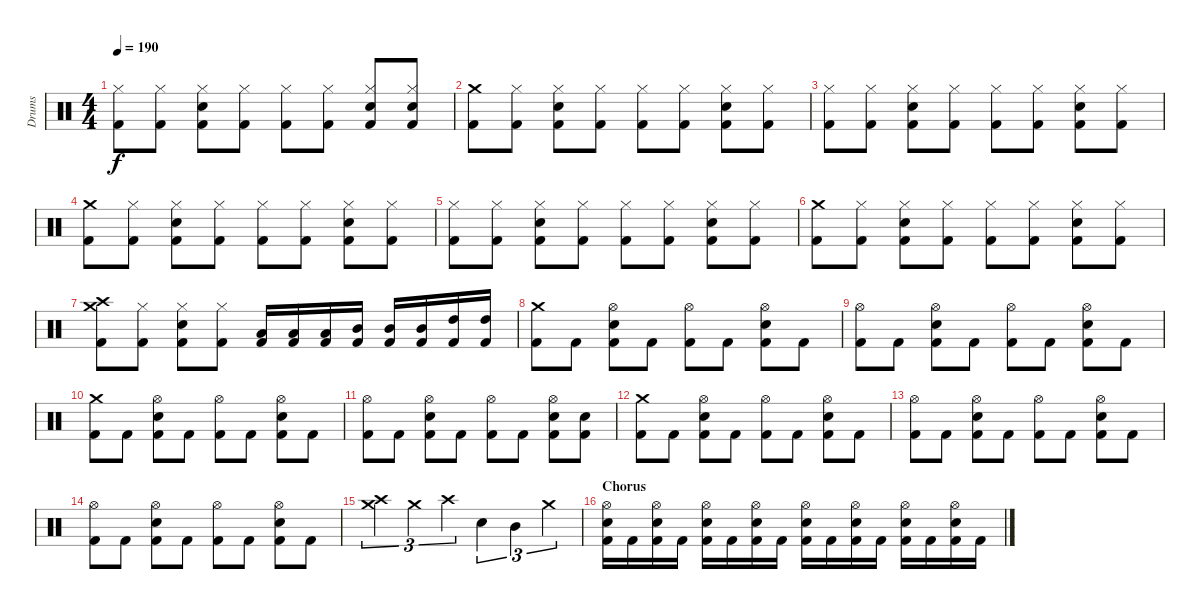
\track ("Drums" "Drums") {instrument percussion}
\staff {score}
\articulation defaults
\ts (4 4)
\tempo 190
\clef neutral
\ks c
("Kick (hit) 2" "Hi-Hat (closed)").8{dy f} ("Kick (hit) 2" "Hi-Hat (closed)").8 ("Kick (hit) 2" "Electric Snare (hit)" "Hi-Hat (closed)").8 ("Kick (hit) 2" "Hi-Hat (closed)").8 ("Kick (hit) 2" "Hi-Hat (closed)").8 ("Kick (hit) 2" "Hi-Hat (closed)").8 ("Kick (hit) 2" "Electric Snare (hit)" "Hi-Hat (closed)").8 ("Kick (hit) 2" "Electric Snare (hit)" "Hi-Hat (closed)").8 |
("Kick (hit) 2" "Crash medium (hit)").8 ("Kick (hit) 2" "Hi-Hat (closed)").8 ("Kick (hit) 2" "Electric Snare (hit)" "Hi-Hat (closed)").8 ("Kick (hit) 2" "Hi-Hat (closed)").8 ("Kick (hit) 2" "Hi-Hat (closed)").8 ("Kick (hit) 2" "Hi-Hat (closed)").8 ("Kick (hit) 2" "Electric Snare (hit)" "Hi-Hat (closed)").8 ("Kick (hit) 2" "Hi-Hat (closed)").8 |
("Kick (hit) 2" "Hi-Hat (closed)").8 ("Kick (hit) 2" "Hi-Hat (closed)").8 ("Kick (hit) 2" "Electric Snare (hit)" "Hi-Hat (closed)").8 ("Kick (hit) 2" "Hi-Hat (closed)").8 ("Kick (hit) 2" "Hi-Hat (closed)").8 ("Kick (hit) 2" "Hi-Hat (closed)").8 ("Kick (hit) 2" "Electric Snare (hit)" "Hi-Hat (closed)").8 ("Kick (hit) 2" "Hi-Hat (closed)").8 |
("Kick (hit) 2" "Crash medium (hit)").8 ("Kick (hit) 2" "Hi-Hat (closed)").8 ("Kick (hit) 2" "Electric Snare (hit)" "Hi-Hat (closed)").8 ("Kick (hit) 2" "Hi-Hat (closed)").8 ("Kick (hit) 2" "Hi-Hat (closed)").8 ("Kick (hit) 2" "Hi-Hat (closed)").8 ("Kick (hit) 2" "Electric Snare (hit)" "Hi-Hat (closed)").8 ("Kick (hit) 2" "Hi-Hat (closed)").8 |
("Kick (hit) 2" "Hi-Hat (closed)").8 ("Kick (hit) 2" "Hi-Hat (closed)").8 ("Kick (hit) 2" "Electric Snare (hit)" "Hi-Hat (closed)").8 ("Kick (hit) 2" "Hi-Hat (closed)").8 ("Kick (hit) 2" "Hi-Hat (closed)").8 ("Kick (hit) 2" "Hi-Hat (closed)").8 ("Kick (hit) 2" "Electric Snare (hit)" "Hi-Hat (closed)").8 ("Kick (hit) 2" "Hi-Hat (closed)").8 |
("Kick (hit) 2" "Crash medium (hit)").8 ("Kick (hit) 2" "Hi-Hat (closed)").8 ("Kick (hit) 2" "Electric Snare (hit)" "Hi-Hat (closed)").8 ("Kick (hit) 2" "Hi-Hat (closed)").8 ("Kick (hit) 2" "Hi-Hat (closed)").8 ("Kick (hit) 2" "Hi-Hat (closed)").8 ("Kick (hit) 2" "Electric Snare (hit)" "Hi-Hat (closed)").8 ("Kick (hit) 2" "Hi-Hat (closed)").8 |
("Kick (hit) 2" "Crash high (hit)" "Crash medium (hit)").8 ("Kick (hit) 2" "Hi-Hat (closed)").8 ("Kick (hit) 2" "Electric Snare (hit)" "Hi-Hat (closed)").8 ("Kick (hit) 2" "Hi-Hat (closed)").8 ("Kick (hit) 2" "Low Tom (hit)").16 ("Kick (hit) 2" "Low Tom (hit)").16 ("Kick (hit) 2" "Low Tom (hit)").16 ("Kick (hit) 2" "Mid Tom (hit)").16 ("Kick (hit) 2" "Mid Tom (hit)").16 ("Kick (hit) 2" "Mid Tom (hit)").16 ("Kick (hit) 2" "High Tom (hit)").16 ("Kick (hit) 2" "High Tom (hit)").16 |
("Kick (hit) 2" "Crash medium (hit)").8 "Kick (hit) 2".8 ("Kick (hit) 2" "Electric Snare (hit)" "Hi-Hat (open)").8 "Kick (hit) 2".8 ("Kick (hit) 2" "Hi-Hat (open)").8 "Kick (hit) 2".8 ("Kick (hit) 2" "Electric Snare (hit)" "Hi-Hat (open)").8 "Kick (hit) 2".8 |
("Kick (hit) 2" "Hi-Hat (open)").8 "Kick (hit) 2".8 ("Kick (hit) 2" "Electric Snare (hit)" "Hi-Hat (open)").8 "Kick (hit) 2".8 ("Kick (hit) 2" "Hi-Hat (open)").8 "Kick (hit) 2".8 ("Kick (hit) 2" "Electric Snare (hit)" "Hi-Hat (open)").8 "Kick (hit) 2".8 |
("Kick (hit) 2" "Crash medium (hit)").8 "Kick (hit) 2".8 ("Kick (hit) 2" "Electric Snare (hit)" "Hi-Hat (open)").8 "Kick (hit) 2".8 ("Kick (hit) 2" "Hi-Hat (open)").8 "Kick (hit) 2".8 ("Kick (hit) 2" "Electric Snare (hit)" "Hi-Hat (open)").8 "Kick (hit) 2".8 |
("Kick (hit) 2" "Hi-Hat (open)").8 "Kick (hit) 2".8 ("Kick (hit) 2" "Electric Snare (hit)" "Hi-Hat (open)").8 "Kick (hit) 2".8 ("Kick (hit) 2" "Hi-Hat (open)").8 "Kick (hit) 2".8 ("Kick (hit) 2" "Electric Snare (hit)" "Hi-Hat (open)").8 ("Kick (hit) 2" "Electric Snare (hit)").8 |
("Kick (hit) 2" "Crash medium (hit)").8 "Kick (hit) 2".8 ("Kick (hit) 2" "Electric Snare (hit)" "Hi-Hat (open)").8 "Kick (hit) 2".8 ("Kick (hit) 2" "Hi-Hat (open)").8 "Kick (hit) 2".8 ("Kick (hit) 2" "Electric Snare (hit)" "Hi-Hat (open)").8 "Kick (hit) 2".8 |
("Kick (hit) 2" "Hi-Hat (open)").8 "Kick (hit) 2".8 ("Kick (hit) 2" "Electric Snare (hit)" "Hi-Hat (open)").8 "Kick (hit) 2".8 ("Kick (hit) 2" "Hi-Hat (open)").8 "Kick (hit) 2".8 ("Kick (hit) 2" "Electric Snare (hit)" "Hi-Hat (open)").8 "Kick (hit) 2".8 |
("Kick (hit) 2" "Hi-Hat (open)").8 "Kick (hit) 2".8 ("Kick (hit) 2" "Electric Snare (hit)" "Hi-Hat (open)").8 "Kick (hit) 2".8 ("Kick (hit) 2" "Hi-Hat (open)").8 "Kick (hit) 2".8 ("Kick (hit) 2" "Electric Snare (hit)" "Hi-Hat (open)").8 "Kick (hit) 2".8 |
("Crash high (hit)" "Crash medium (hit)").4{tu (3 2)} "Crash medium (hit)".4{tu (3 2)} "Crash high (hit)".4{tu (3 2)} "Electric Snare (hit)".4{tu (3 2)} "Mid Tom (hit)".4{tu (3 2)} "Crash medium (hit)".4{tu (3 2)} |
\section ("" "Chorus")
("Kick (hit) 2" "Electric Snare (hit)" "Hi-Hat (open)").16 "Kick (hit) 2".16 ("Kick (hit) 2" "Electric Snare (hit)" "Hi-Hat (open)").16 "Kick (hit) 2".16 ("Kick (hit) 2" "Electric Snare (hit)" "Hi-Hat (open)").16 "Kick (hit) 2".16 ("Kick (hit) 2" "Electric Snare (hit)" "Hi-Hat (open)").16 "Kick (hit) 2".16 ("Kick (hit) 2" "Electric Snare (hit)" "Hi-Hat (open)").16 "Kick (hit) 2".16 ("Kick (hit) 2" "Electric Snare (hit)" "Hi-Hat (open)").16 "Kick (hit) 2".16 ("Kick (hit) 2" "Electric Snare (hit)" "Hi-Hat (open)").16 "Kick (hit) 2".16 ("Kick (hit) 2" "Electric Snare (hit)" "Hi-Hat (open)").16 "Kick (hit) 2".16
